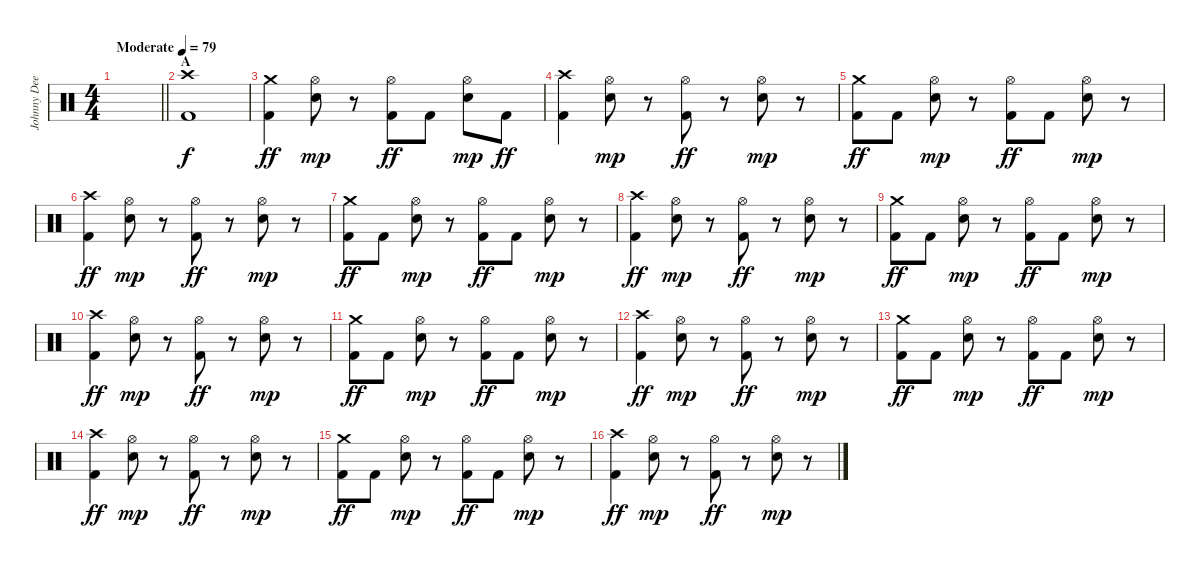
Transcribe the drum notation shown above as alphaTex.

\track ("Johnny Dee (drums)" "Johnny Dee") {instrument percussion}
\staff {score}
\articulation defaults
\ts (4 4)
\tempo (79 "Moderate")
\clef neutral
\barLineRight lightlight
\ks c
|
\section ("" "A")
("Crash high (hit)" "Kick (hit) 2").1 |
("Crash medium (hit)" "Kick (hit) 2").4{dy ff} ("Hi-Hat (open)" "Electric Snare (hit)").8{dy mp} r.8 ("Hi-Hat (open)" "Kick (hit) 2").8{dy ff} "Kick (hit) 2".8 ("Hi-Hat (open)" "Electric Snare (hit)").8{dy mp} "Kick (hit) 2".8{dy ff} |
("Crash high (hit)" "Kick (hit) 2").4 ("Hi-Hat (open)" "Electric Snare (hit)").8{dy mp} r.8 ("Hi-Hat (open)" "Kick (hit) 2").8{dy ff} r.8 ("Hi-Hat (open)" "Electric Snare (hit)").8{dy mp} r.8 |
("Crash medium (hit)" "Kick (hit) 2").8{dy ff} "Kick (hit) 2".8 ("Hi-Hat (open)" "Electric Snare (hit)").8{dy mp} r.8 ("Hi-Hat (open)" "Kick (hit) 2").8{dy ff} "Kick (hit) 2".8 ("Hi-Hat (open)" "Electric Snare (hit)").8{dy mp} r.8 |
("Crash high (hit)" "Kick (hit) 2").4{dy ff} ("Hi-Hat (open)" "Electric Snare (hit)").8{dy mp} r.8 ("Hi-Hat (open)" "Kick (hit) 2").8{dy ff} r.8 ("Hi-Hat (open)" "Electric Snare (hit)").8{dy mp} r.8 |
("Crash medium (hit)" "Kick (hit) 2").8{dy ff} "Kick (hit) 2".8 ("Hi-Hat (open)" "Electric Snare (hit)").8{dy mp} r.8 ("Hi-Hat (open)" "Kick (hit) 2").8{dy ff} "Kick (hit) 2".8 ("Hi-Hat (open)" "Electric Snare (hit)").8{dy mp} r.8 |
("Crash high (hit)" "Kick (hit) 2").4{dy ff} ("Hi-Hat (open)" "Electric Snare (hit)").8{dy mp} r.8 ("Hi-Hat (open)" "Kick (hit) 2").8{dy ff} r.8 ("Hi-Hat (open)" "Electric Snare (hit)").8{dy mp} r.8 |
("Crash medium (hit)" "Kick (hit) 2").8{dy ff} "Kick (hit) 2".8 ("Hi-Hat (open)" "Electric Snare (hit)").8{dy mp} r.8 ("Hi-Hat (open)" "Kick (hit) 2").8{dy ff} "Kick (hit) 2".8 ("Hi-Hat (open)" "Electric Snare (hit)").8{dy mp} r.8 |
("Crash high (hit)" "Kick (hit) 2").4{dy ff} ("Hi-Hat (open)" "Electric Snare (hit)").8{dy mp} r.8 ("Hi-Hat (open)" "Kick (hit) 2").8{dy ff} r.8 ("Hi-Hat (open)" "Electric Snare (hit)").8{dy mp} r.8 |
("Crash medium (hit)" "Kick (hit) 2").8{dy ff} "Kick (hit) 2".8 ("Hi-Hat (open)" "Electric Snare (hit)").8{dy mp} r.8 ("Hi-Hat (open)" "Kick (hit) 2").8{dy ff} "Kick (hit) 2".8 ("Hi-Hat (open)" "Electric Snare (hit)").8{dy mp} r.8 |
("Crash high (hit)" "Kick (hit) 2").4{dy ff} ("Hi-Hat (open)" "Electric Snare (hit)").8{dy mp} r.8 ("Hi-Hat (open)" "Kick (hit) 2").8{dy ff} r.8 ("Hi-Hat (open)" "Electric Snare (hit)").8{dy mp} r.8 |
("Crash medium (hit)" "Kick (hit) 2").8{dy ff} "Kick (hit) 2".8 ("Hi-Hat (open)" "Electric Snare (hit)").8{dy mp} r.8 ("Hi-Hat (open)" "Kick (hit) 2").8{dy ff} "Kick (hit) 2".8 ("Hi-Hat (open)" "Electric Snare (hit)").8{dy mp} r.8 |
("Crash high (hit)" "Kick (hit) 2").4{dy ff} ("Hi-Hat (open)" "Electric Snare (hit)").8{dy mp} r.8 ("Hi-Hat (open)" "Kick (hit) 2").8{dy ff} r.8 ("Hi-Hat (open)" "Electric Snare (hit)").8{dy mp} r.8 |
("Crash medium (hit)" "Kick (hit) 2").8{dy ff} "Kick (hit) 2".8 ("Hi-Hat (open)" "Electric Snare (hit)").8{dy mp} r.8 ("Hi-Hat (open)" "Kick (hit) 2").8{dy ff} "Kick (hit) 2".8 ("Hi-Hat (open)" "Electric Snare (hit)").8{dy mp} r.8 |
("Crash high (hit)" "Kick (hit) 2").4{dy ff} ("Hi-Hat (open)" "Electric Snare (hit)").8{dy mp} r.8 ("Hi-Hat (open)" "Kick (hit) 2").8{dy ff} r.8 ("Hi-Hat (open)" "Electric Snare (hit)").8{dy mp} r.8
